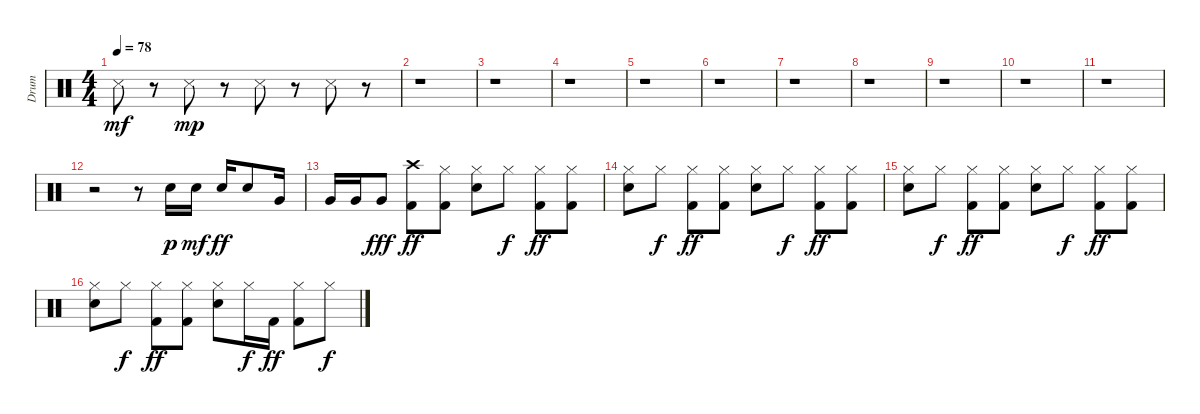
\track ("Drum" "Drum") {instrument percussion}
\staff {score}
\articulation defaults
\ts (4 4)
\tempo 78
\clef neutral
\ks c "Snare (side stick) 3".8{dy mf}
r.8 "Snare (side stick) 3".8{dy mp} r.8 "Snare (side stick) 3".8 r.8 "Snare (side stick) 3".8 r.8 |
r.1 |
r.1 |
r.1 |
r.1 |
r.1 |
r.1 |
r.1 |
r.1 |
r.1 |
r.1 |
r.2 r.8 "Snare (hit) 2".16{dy p} "Snare (hit) 2".16{dy mf} "Snare (hit) 2".16{dy ff} "Snare (hit) 2".8 "Very Low Tom (hit)".16 |
"Very Low Tom (hit)".16 "Very Low Tom (hit)".16 "Very Low Tom (hit)".8{dy fff} ("Kick (hit) 2" "Crash high (hit)").8{dy ff} ("Kick (hit) 2" "Hi-Hat (closed)").8 ("Snare (hit) 2" "Hi-Hat (closed)").8 "Hi-Hat (closed)".8{dy f} ("Kick (hit) 2" "Hi-Hat (closed)").8{dy ff} ("Kick (hit) 2" "Hi-Hat (closed)").8 |
("Snare (hit) 2" "Hi-Hat (closed)").8 "Hi-Hat (closed)".8{dy f} ("Kick (hit) 2" "Hi-Hat (closed)").8{dy ff} ("Kick (hit) 2" "Hi-Hat (closed)").8 ("Snare (hit) 2" "Hi-Hat (closed)").8 "Hi-Hat (closed)".8{dy f} ("Kick (hit) 2" "Hi-Hat (closed)").8{dy ff} ("Kick (hit) 2" "Hi-Hat (closed)").8 |
("Snare (hit) 2" "Hi-Hat (closed)").8 "Hi-Hat (closed)".8{dy f} ("Kick (hit) 2" "Hi-Hat (closed)").8{dy ff} ("Kick (hit) 2" "Hi-Hat (closed)").8 ("Snare (hit) 2" "Hi-Hat (closed)").8 "Hi-Hat (closed)".8{dy f} ("Kick (hit) 2" "Hi-Hat (closed)").8{dy ff} ("Kick (hit) 2" "Hi-Hat (closed)").8 |
("Snare (hit) 2" "Hi-Hat (closed)").8 "Hi-Hat (closed)".8{dy f} ("Kick (hit) 2" "Hi-Hat (closed)").8{dy ff} ("Kick (hit) 2" "Hi-Hat (closed)").8 ("Snare (hit) 2" "Hi-Hat (closed)").8 "Hi-Hat (closed)".16{dy f} "Kick (hit) 2".16{dy ff} ("Kick (hit) 2" "Hi-Hat (closed)").8 "Hi-Hat (closed)".8{dy f}
